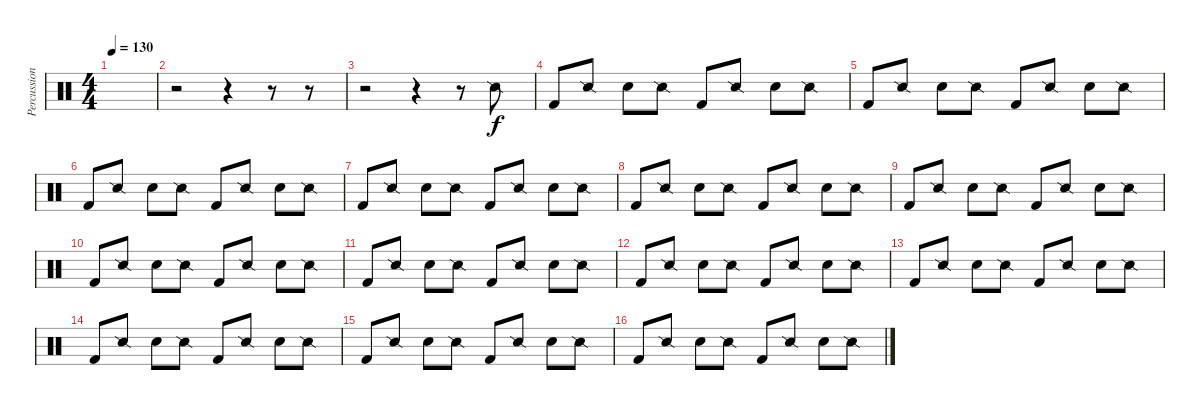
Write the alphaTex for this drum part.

\track ("Percussion" "Percussion") {instrument percussion}
\staff {score}
\articulation defaults
\ts (4 4)
\tempo 130
\clef neutral
\ks c
|
r.2 r.4 r.8 r.8 |
r.2 r.4 r.8 "Snare (side stick) 2".8 |
"Kick (hit) 2".8 "Snare (side stick) 2".8 "Snare (hit) 2".8 "Snare (side stick) 2".8 "Kick (hit) 2".8 "Snare (side stick) 2".8 "Snare (hit) 2".8 "Snare (side stick) 2".8 |
"Kick (hit) 2".8 "Snare (side stick) 2".8 "Snare (hit) 2".8 "Snare (side stick) 2".8 "Kick (hit) 2".8 "Snare (side stick) 2".8 "Snare (hit) 2".8 "Snare (side stick) 2".8 |
"Kick (hit) 2".8 "Snare (side stick) 2".8 "Snare (hit) 2".8 "Snare (side stick) 2".8 "Kick (hit) 2".8 "Snare (side stick) 2".8 "Snare (hit) 2".8 "Snare (side stick) 2".8 |
"Kick (hit) 2".8 "Snare (side stick) 2".8 "Snare (hit) 2".8 "Snare (side stick) 2".8 "Kick (hit) 2".8 "Snare (side stick) 2".8 "Snare (hit) 2".8 "Snare (side stick) 2".8 |
"Kick (hit) 2".8 "Snare (side stick) 2".8 "Snare (hit) 2".8 "Snare (side stick) 2".8 "Kick (hit) 2".8 "Snare (side stick) 2".8 "Snare (hit) 2".8 "Snare (side stick) 2".8 |
"Kick (hit) 2".8 "Snare (side stick) 2".8 "Snare (hit) 2".8 "Snare (side stick) 2".8 "Kick (hit) 2".8 "Snare (side stick) 2".8 "Snare (hit) 2".8 "Snare (side stick) 2".8 |
"Kick (hit) 2".8 "Snare (side stick) 2".8 "Snare (hit) 2".8 "Snare (side stick) 2".8 "Kick (hit) 2".8 "Snare (side stick) 2".8 "Snare (hit) 2".8 "Snare (side stick) 2".8 |
"Kick (hit) 2".8 "Snare (side stick) 2".8 "Snare (hit) 2".8 "Snare (side stick) 2".8 "Kick (hit) 2".8 "Snare (side stick) 2".8 "Snare (hit) 2".8 "Snare (side stick) 2".8 |
"Kick (hit) 2".8 "Snare (side stick) 2".8 "Snare (hit) 2".8 "Snare (side stick) 2".8 "Kick (hit) 2".8 "Snare (side stick) 2".8 "Snare (hit) 2".8 "Snare (side stick) 2".8 |
"Kick (hit) 2".8 "Snare (side stick) 2".8 "Snare (hit) 2".8 "Snare (side stick) 2".8 "Kick (hit) 2".8 "Snare (side stick) 2".8 "Snare (hit) 2".8 "Snare (side stick) 2".8 |
"Kick (hit) 2".8 "Snare (side stick) 2".8 "Snare (hit) 2".8 "Snare (side stick) 2".8 "Kick (hit) 2".8 "Snare (side stick) 2".8 "Snare (hit) 2".8 "Snare (side stick) 2".8 |
"Kick (hit) 2".8 "Snare (side stick) 2".8 "Snare (hit) 2".8 "Snare (side stick) 2".8 "Kick (hit) 2".8 "Snare (side stick) 2".8 "Snare (hit) 2".8 "Snare (side stick) 2".8 |
"Kick (hit) 2".8 "Snare (side stick) 2".8 "Snare (hit) 2".8 "Snare (side stick) 2".8 "Kick (hit) 2".8 "Snare (side stick) 2".8 "Snare (hit) 2".8 "Snare (side stick) 2".8
